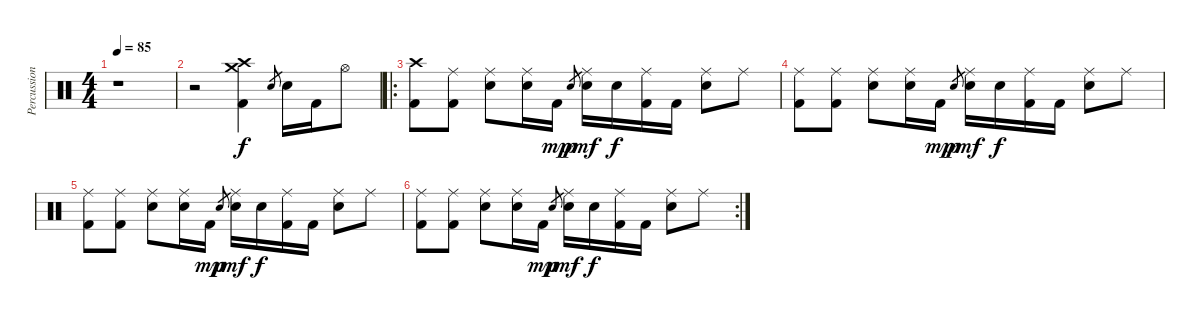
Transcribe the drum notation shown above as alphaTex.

\track ("Percussion" "Percussion") {instrument percussion}
\staff {score}
\articulation defaults
\ts (4 4)
\tempo 85
\clef neutral
\ks c
r.1{dy f} |
r.2 ("Kick (hit) 2" "Crash medium (hit)" "Crash high (hit)").4 "Electric Snare (hit)".8{gr} "Electric Snare (hit)".16 "Kick (hit) 2".16 "Hi-Hat (open)".8 |
\ro
("Kick (hit) 2" "Crash high (hit)").8 ("Kick (hit) 2" "Ride (middle)").8 ("Electric Snare (hit)" "Ride (middle)").8 ("Electric Snare (hit)"{x} "Ride (middle)").16 "Kick (hit) 2".16{dy mp} "Electric Snare (hit)".8{gr dy p} ("Electric Snare (hit)"{tr (40 16)} "Ride (middle)").16{dy mf} "Electric Snare (hit)".16{dy f} ("Kick (hit) 2" "Ride (middle)").16 "Kick (hit) 2".16 ("Electric Snare (hit)" "Ride (middle)").8 "Ride (middle)".8 |
("Kick (hit) 2" "Ride (middle)").8 ("Kick (hit) 2" "Ride (middle)").8 ("Electric Snare (hit)" "Ride (middle)").8 ("Electric Snare (hit)"{x} "Ride (middle)").16 "Kick (hit) 2".16{dy mp} "Electric Snare (hit)".8{gr dy p} ("Electric Snare (hit)"{tr (40 16)} "Ride (middle)").16{dy mf} "Electric Snare (hit)".16{dy f} ("Kick (hit) 2" "Ride (middle)").16 "Kick (hit) 2".16 ("Electric Snare (hit)" "Ride (middle)").8 "Ride (middle)".8 |
("Kick (hit) 2" "Ride (middle)").8 ("Kick (hit) 2" "Ride (middle)").8 ("Electric Snare (hit)" "Ride (middle)").8 ("Electric Snare (hit)"{x} "Ride (middle)").16 "Kick (hit) 2".16{dy mp} "Electric Snare (hit)".8{gr dy p} ("Electric Snare (hit)"{tr (40 16)} "Ride (middle)").16{dy mf} "Electric Snare (hit)".16{dy f} ("Kick (hit) 2" "Ride (middle)").16 "Kick (hit) 2".16 ("Electric Snare (hit)" "Ride (middle)").8 "Ride (middle)".8 |
\rc 2
("Kick (hit) 2" "Ride (middle)").8 ("Kick (hit) 2" "Ride (middle)").8 ("Electric Snare (hit)" "Ride (middle)").8 ("Electric Snare (hit)"{x} "Ride (middle)").16 "Kick (hit) 2".16{dy mp} "Electric Snare (hit)".8{gr dy p} ("Electric Snare (hit)"{tr (40 16)} "Ride (middle)").16{dy mf} "Electric Snare (hit)".16{dy f} ("Kick (hit) 2" "Ride (middle)").16 "Kick (hit) 2".16 ("Electric Snare (hit)" "Ride (middle)").8 "Ride (middle)".8
